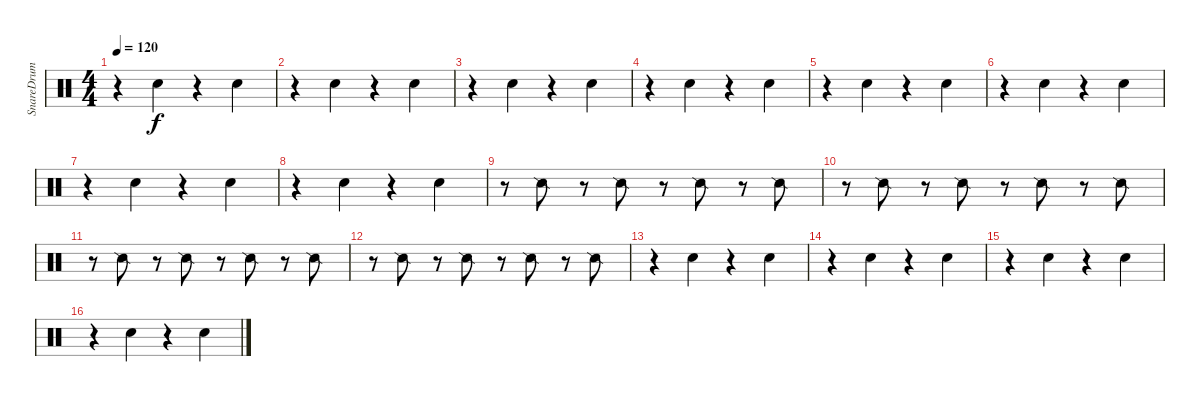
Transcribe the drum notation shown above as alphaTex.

\track ("SnareDrum" "SnareDrum") {instrument percussion}
\staff {score}
\articulation defaults
\ts (4 4)
\tempo 120
\clef neutral
\ks c
r.4{dy f} "Snare (hit) 2".4 r.4 "Snare (hit) 2".4 |
r.4 "Snare (hit) 2".4 r.4 "Snare (hit) 2".4 |
r.4 "Snare (hit) 2".4 r.4 "Snare (hit) 2".4 |
r.4 "Snare (hit) 2".4 r.4 "Snare (hit) 2".4 |
r.4 "Snare (hit) 2".4 r.4 "Snare (hit) 2".4 |
r.4 "Snare (hit) 2".4 r.4 "Snare (hit) 2".4 |
r.4 "Snare (hit) 2".4 r.4 "Snare (hit) 2".4 |
r.4 "Snare (hit) 2".4 r.4 "Snare (hit) 2".4 |
r.8 "Snare (side stick) 2".8 r.8 "Snare (side stick) 2".8 r.8 "Snare (side stick) 2".8 r.8 "Snare (side stick) 2".8 |
r.8 "Snare (side stick) 2".8 r.8 "Snare (side stick) 2".8 r.8 "Snare (side stick) 2".8 r.8 "Snare (side stick) 2".8 |
r.8 "Snare (side stick) 2".8 r.8 "Snare (side stick) 2".8 r.8 "Snare (side stick) 2".8 r.8 "Snare (side stick) 2".8 |
r.8 "Snare (side stick) 2".8 r.8 "Snare (side stick) 2".8 r.8 "Snare (side stick) 2".8 r.8 "Snare (side stick) 2".8 |
r.4 "Snare (hit) 2".4 r.4 "Snare (hit) 2".4 |
r.4 "Snare (hit) 2".4 r.4 "Snare (hit) 2".4 |
r.4 "Snare (hit) 2".4 r.4 "Snare (hit) 2".4 |
r.4 "Snare (hit) 2".4 r.4 "Snare (hit) 2".4
